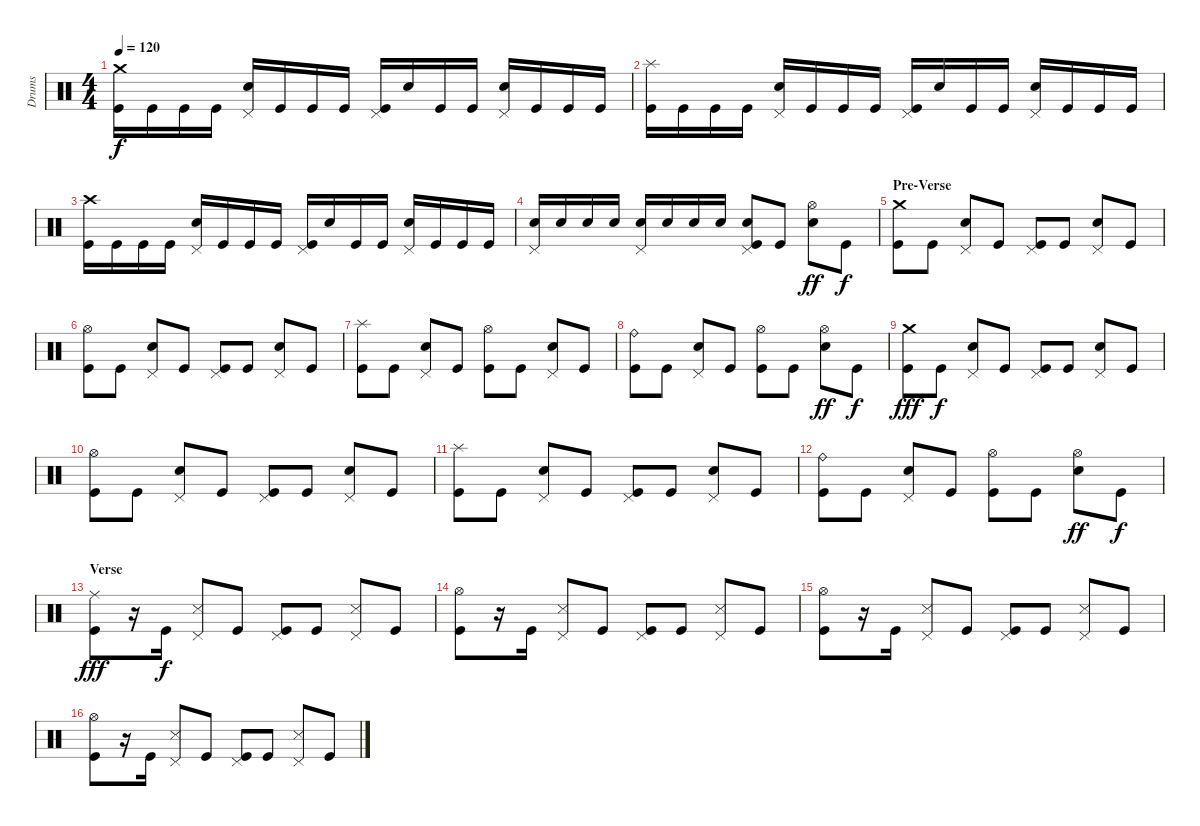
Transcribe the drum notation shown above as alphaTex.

\track ("Drums" "Drums") {instrument percussion}
\staff {score}
\articulation defaults
\ts (4 4)
\tempo 120
\clef neutral
\ks c
("Crash medium (hit)" "Kick (hit)").16{dy f} "Kick (hit)".16 "Kick (hit)".16 "Kick (hit)".16 ("Pedal Hi-Hat (hit)" "Electric Snare (hit)").16 "Kick (hit)".16 "Kick (hit)".16 "Kick (hit)".16 ("Pedal Hi-Hat (hit)" "Kick (hit)").16 "Electric Snare (hit)".16 "Kick (hit)".16 "Kick (hit)".16 ("Pedal Hi-Hat (hit)" "Electric Snare (hit)").16 "Kick (hit)".16 "Kick (hit)".16 "Kick (hit)".16 |
("Splash (hit)" "Kick (hit)").16 "Kick (hit)".16 "Kick (hit)".16 "Kick (hit)".16 ("Pedal Hi-Hat (hit)" "Electric Snare (hit)").16 "Kick (hit)".16 "Kick (hit)".16 "Kick (hit)".16 ("Pedal Hi-Hat (hit)" "Kick (hit)").16 "Electric Snare (hit)".16 "Kick (hit)".16 "Kick (hit)".16 ("Pedal Hi-Hat (hit)" "Electric Snare (hit)").16 "Kick (hit)".16 "Kick (hit)".16 "Kick (hit)".16 |
("Crash high (hit)" "Kick (hit)").16 "Kick (hit)".16 "Kick (hit)".16 "Kick (hit)".16 ("Pedal Hi-Hat (hit)" "Electric Snare (hit)").16 "Kick (hit)".16 "Kick (hit)".16 "Kick (hit)".16 ("Pedal Hi-Hat (hit)" "Kick (hit)").16 "Electric Snare (hit)".16 "Kick (hit)".16 "Kick (hit)".16 ("Pedal Hi-Hat (hit)" "Electric Snare (hit)").16 "Kick (hit)".16 "Kick (hit)".16 "Kick (hit)".16 |
("Pedal Hi-Hat (hit)" "Electric Snare (hit)").16 "Electric Snare (hit)".16 "Electric Snare (hit)".16 "Electric Snare (hit)".16 ("Pedal Hi-Hat (hit)" "Electric Snare (hit)").16 "Electric Snare (hit)".16 "Electric Snare (hit)".16 "Electric Snare (hit)".16 ("Pedal Hi-Hat (hit)" "Electric Snare (hit)" "Kick (hit)").8 "Kick (hit)".8 ("Hi-Hat (open)" "Snare (hit) 2").8{dy ff} "Kick (hit)".8{dy f} |
\section ("" "Pre-Verse")
("Crash medium (hit)" "Kick (hit)").8 "Kick (hit)".8 ("Pedal Hi-Hat (hit)" "Snare (hit) 2").8 "Kick (hit)".8 ("Pedal Hi-Hat (hit)" "Kick (hit)").8 "Kick (hit)".8 ("Pedal Hi-Hat (hit)" "Snare (hit) 2").8 "Kick (hit)".8 |
("Hi-Hat (open)" "Kick (hit)").8 "Kick (hit)".8 ("Pedal Hi-Hat (hit)" "Snare (hit) 2").8 "Kick (hit)".8 ("Pedal Hi-Hat (hit)" "Kick (hit)").8 "Kick (hit)".8 ("Pedal Hi-Hat (hit)" "Snare (hit) 2").8 "Kick (hit)".8 |
("Splash (hit)" "Kick (hit)").8 "Kick (hit)".8 ("Pedal Hi-Hat (hit)" "Snare (hit) 2").8 "Kick (hit)".8 ("Hi-Hat (open)" "Kick (hit)").8 "Kick (hit)".8 ("Pedal Hi-Hat (hit)" "Snare (hit) 2").8 "Kick (hit)".8 |
("Ride (bell)" "Kick (hit)").8 "Kick (hit)".8 ("Pedal Hi-Hat (hit)" "Snare (hit) 2").8 "Kick (hit)".8 ("Hi-Hat (open)" "Kick (hit)").8 "Kick (hit)".8 ("Hi-Hat (open)" "Snare (hit) 2").8{dy ff} "Kick (hit)".8{dy f} |
("Crash medium (hit)" "Kick (hit)").8{dy fff} "Kick (hit)".8{dy f} ("Pedal Hi-Hat (hit)" "Snare (hit) 2").8 "Kick (hit)".8 ("Pedal Hi-Hat (hit)" "Kick (hit)").8 "Kick (hit)".8 ("Pedal Hi-Hat (hit)" "Snare (hit) 2").8 "Kick (hit)".8 |
("Hi-Hat (open)" "Kick (hit)").8 "Kick (hit)".8 ("Pedal Hi-Hat (hit)" "Snare (hit) 2").8 "Kick (hit)".8 ("Pedal Hi-Hat (hit)" "Kick (hit)").8 "Kick (hit)".8 ("Pedal Hi-Hat (hit)" "Snare (hit) 2").8 "Kick (hit)".8 |
("Splash (hit)" "Kick (hit)").8 "Kick (hit)".8 ("Pedal Hi-Hat (hit)" "Snare (hit) 2").8 "Kick (hit)".8 ("Pedal Hi-Hat (hit)" "Kick (hit)").8 "Kick (hit)".8 ("Pedal Hi-Hat (hit)" "Snare (hit) 2").8 "Kick (hit)".8 |
("Ride (bell)" "Kick (hit)").8 "Kick (hit)".8 ("Pedal Hi-Hat (hit)" "Snare (hit) 2").8 "Kick (hit)".8 ("Hi-Hat (open)" "Kick (hit)").8 "Kick (hit)".8 ("Hi-Hat (open)" "Snare (hit) 2").8{dy ff} "Kick (hit)".8{dy f} |
\section ("" "Verse")
("Ride (middle)" "Kick (hit)").8{dy fff} r.16 "Kick (hit)".16{dy f} ("Pedal Hi-Hat (hit)" "Snare (side stick) 3").8 "Kick (hit)".8 ("Pedal Hi-Hat (hit)" "Kick (hit)").8 "Kick (hit)".8 ("Pedal Hi-Hat (hit)" "Snare (side stick) 3").8 "Kick (hit)".8 |
("Hi-Hat (open)" "Kick (hit)").8 r.16 "Kick (hit)".16 ("Pedal Hi-Hat (hit)" "Snare (side stick) 3").8 "Kick (hit)".8 ("Pedal Hi-Hat (hit)" "Kick (hit)").8 "Kick (hit)".8 ("Pedal Hi-Hat (hit)" "Snare (side stick) 3").8 "Kick (hit)".8 |
("Hi-Hat (open)" "Kick (hit)").8 r.16 "Kick (hit)".16 ("Pedal Hi-Hat (hit)" "Snare (side stick) 3").8 "Kick (hit)".8 ("Pedal Hi-Hat (hit)" "Kick (hit)").8 "Kick (hit)".8 ("Pedal Hi-Hat (hit)" "Snare (side stick) 3").8 "Kick (hit)".8 |
("Hi-Hat (open)" "Kick (hit)").8 r.16 "Kick (hit)".16 ("Pedal Hi-Hat (hit)" "Snare (side stick) 3").8 "Kick (hit)".8 ("Pedal Hi-Hat (hit)" "Kick (hit)").8 "Kick (hit)".8 ("Pedal Hi-Hat (hit)" "Snare (side stick) 3").8 "Kick (hit)".8
